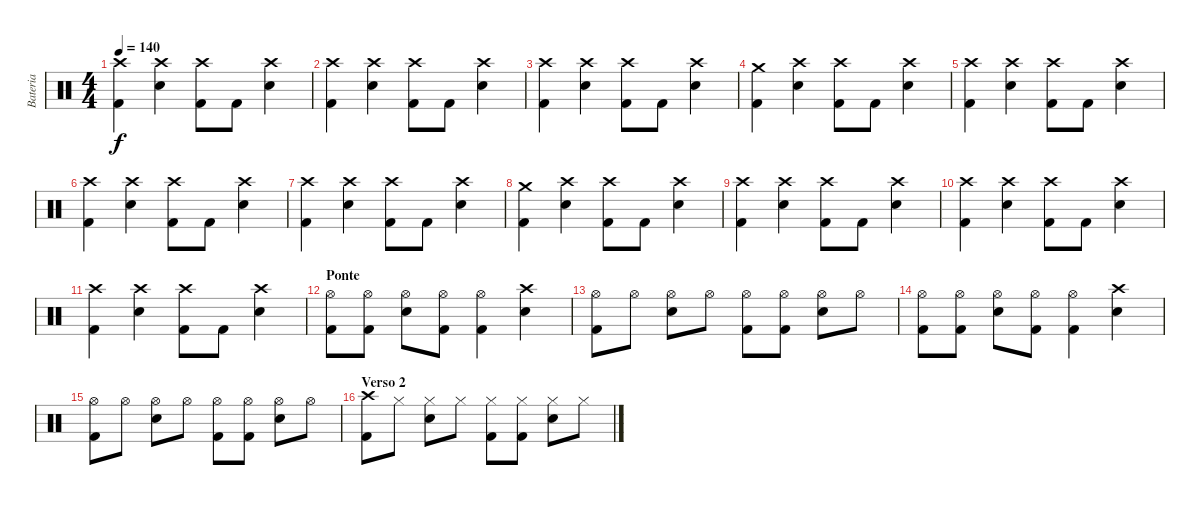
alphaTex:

\track ("Bateria" "Bateria") {instrument percussion}
\staff {score}
\articulation defaults
\ts (4 4)
\tempo 140
\clef neutral
\ks c
("Crash high (hit)" "Kick (hit) 2").4{dy f} ("Crash high (hit)" "Electric Snare (hit)").4 ("Crash high (hit)" "Kick (hit) 2").8 "Kick (hit) 2".8 ("Crash high (hit)" "Electric Snare (hit)").4 |
("Crash high (hit)" "Kick (hit) 2").4 ("Crash high (hit)" "Electric Snare (hit)").4 ("Crash high (hit)" "Kick (hit) 2").8 "Kick (hit) 2".8 ("Crash high (hit)" "Electric Snare (hit)").4 |
("Crash high (hit)" "Kick (hit) 2").4 ("Crash high (hit)" "Electric Snare (hit)").4 ("Crash high (hit)" "Kick (hit) 2").8 "Kick (hit) 2".8 ("Crash high (hit)" "Electric Snare (hit)").4 |
("Crash medium (hit)" "Kick (hit) 2").4 ("Crash high (hit)" "Electric Snare (hit)").4 ("Crash high (hit)" "Kick (hit) 2").8 "Kick (hit) 2".8 ("Crash high (hit)" "Electric Snare (hit)").4 |
("Crash high (hit)" "Kick (hit) 2").4 ("Crash high (hit)" "Electric Snare (hit)").4 ("Crash high (hit)" "Kick (hit) 2").8 "Kick (hit) 2".8 ("Crash high (hit)" "Electric Snare (hit)").4 |
("Crash high (hit)" "Kick (hit) 2").4 ("Crash high (hit)" "Electric Snare (hit)").4 ("Crash high (hit)" "Kick (hit) 2").8 "Kick (hit) 2".8 ("Crash high (hit)" "Electric Snare (hit)").4 |
("Crash high (hit)" "Kick (hit) 2").4 ("Crash high (hit)" "Electric Snare (hit)").4 ("Crash high (hit)" "Kick (hit) 2").8 "Kick (hit) 2".8 ("Crash high (hit)" "Electric Snare (hit)").4 |
("Crash medium (hit)" "Kick (hit) 2").4 ("Crash high (hit)" "Electric Snare (hit)").4 ("Crash high (hit)" "Kick (hit) 2").8 "Kick (hit) 2".8 ("Crash high (hit)" "Electric Snare (hit)").4 |
("Crash high (hit)" "Kick (hit) 2").4 ("Crash high (hit)" "Electric Snare (hit)").4 ("Crash high (hit)" "Kick (hit) 2").8 "Kick (hit) 2".8 ("Crash high (hit)" "Electric Snare (hit)").4 |
("Crash high (hit)" "Kick (hit) 2").4 ("Crash high (hit)" "Electric Snare (hit)").4 ("Crash high (hit)" "Kick (hit) 2").8 "Kick (hit) 2".8 ("Crash high (hit)" "Electric Snare (hit)").4 |
("Crash high (hit)" "Kick (hit) 2").4 ("Crash high (hit)" "Electric Snare (hit)").4 ("Crash high (hit)" "Kick (hit) 2").8 "Kick (hit) 2".8 ("Crash high (hit)" "Electric Snare (hit)").4 |
\section ("" "Ponte")
("Hi-Hat (open)" "Kick (hit) 2").8 ("Hi-Hat (open)" "Kick (hit) 2").8 ("Hi-Hat (open)" "Electric Snare (hit)").8 ("Hi-Hat (open)" "Kick (hit) 2").8 ("Hi-Hat (open)" "Kick (hit) 2").4 ("Crash high (hit)" "Electric Snare (hit)").4 |
("Hi-Hat (open)" "Kick (hit) 2").8 "Hi-Hat (open)".8 ("Hi-Hat (open)" "Electric Snare (hit)").8 "Hi-Hat (open)".8 ("Hi-Hat (open)" "Kick (hit) 2").8 ("Hi-Hat (open)" "Kick (hit) 2").8 ("Hi-Hat (open)" "Electric Snare (hit)").8 "Hi-Hat (open)".8 |
("Hi-Hat (open)" "Kick (hit) 2").8 ("Hi-Hat (open)" "Kick (hit) 2").8 ("Hi-Hat (open)" "Electric Snare (hit)").8 ("Hi-Hat (open)" "Kick (hit) 2").8 ("Hi-Hat (open)" "Kick (hit) 2").4 ("Crash high (hit)" "Electric Snare (hit)").4 |
("Hi-Hat (open)" "Kick (hit) 2").8 "Hi-Hat (open)".8 ("Hi-Hat (open)" "Electric Snare (hit)").8 "Hi-Hat (open)".8 ("Hi-Hat (open)" "Kick (hit) 2").8 ("Hi-Hat (open)" "Kick (hit) 2").8 ("Hi-Hat (open)" "Electric Snare (hit)").8 "Hi-Hat (open)".8 |
\section ("" "Verso 2")
("Crash high (hit)" "Kick (hit) 2").8 "Hi-Hat (closed)".8 ("Hi-Hat (closed)" "Electric Snare (hit)").8 "Hi-Hat (closed)".8 ("Hi-Hat (closed)" "Kick (hit) 2").8 ("Hi-Hat (closed)" "Kick (hit) 2").8 ("Hi-Hat (closed)" "Electric Snare (hit)").8 "Hi-Hat (closed)".8
